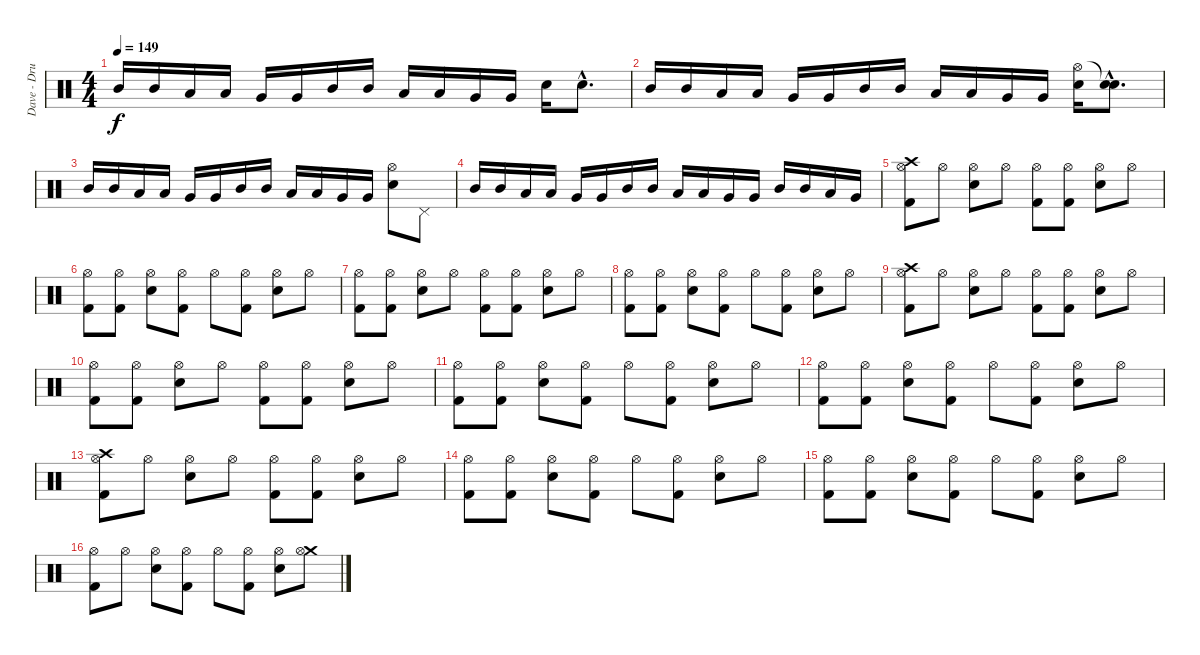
\track ("Dave - Drums" "Dave - Dru") {instrument percussion}
\staff {score}
\articulation defaults
\ts (4 4)
\tempo 149
\clef neutral
\ks c "Mid Tom (hit)".16{dy f} "Mid Tom (hit)".16 "Low Tom (hit)".16 "Low Tom (hit)".16 "Very Low Tom (hit)".16 "Very Low Tom (hit)".16 "Mid Tom (hit)".16 "Mid Tom (hit)".16 "Low Tom (hit)".16 "Low Tom (hit)".16 "Very Low Tom (hit)".16 "Very Low Tom (hit)".16 "Electric Snare (hit)".16 "Electric Snare (hit)"{hac}.8{d}
|
"Mid Tom (hit)".16 "Mid Tom (hit)".16 "Low Tom (hit)".16 "Low Tom (hit)".16 "Very Low Tom (hit)".16 "Very Low Tom (hit)".16 "Mid Tom (hit)".16 "Mid Tom (hit)".16 "Low Tom (hit)".16 "Low Tom (hit)".16 "Very Low Tom (hit)".16 "Very Low Tom (hit)".16 ("Hi-Hat (open)" "Electric Snare (hit)").16 ("Snare (hit)"{hac t} "Electric Snare (hit)"{hac}).8{d} |
"Mid Tom (hit)".16 "Mid Tom (hit)".16 "Low Tom (hit)".16 "Low Tom (hit)".16 "Very Low Tom (hit)".16 "Very Low Tom (hit)".16 "Mid Tom (hit)".16 "Mid Tom (hit)".16 "Low Tom (hit)".16 "Low Tom (hit)".16 "Very Low Tom (hit)".16 "Very Low Tom (hit)".16 ("Hi-Hat (open)" "Electric Snare (hit)").8 "Pedal Hi-Hat (hit)".8 |
"Mid Tom (hit)".16 "Mid Tom (hit)".16 "Low Tom (hit)".16 "Low Tom (hit)".16 "Very Low Tom (hit)".16 "Very Low Tom (hit)".16 "Mid Tom (hit)".16 "Mid Tom (hit)".16 "Low Tom (hit)".16 "Low Tom (hit)".16 "Very Low Tom (hit)".16 "Very Low Tom (hit)".16 "Mid Tom (hit)".16 "Mid Tom (hit)".16 "Low Tom (hit)".16 "Very Low Tom (hit)".16 |
("Crash high (hit)" "Hi-Hat (open)" "Kick (hit) 2").8 "Hi-Hat (open)".8 ("Hi-Hat (open)" "Electric Snare (hit)").8 "Hi-Hat (open)".8 ("Hi-Hat (open)" "Kick (hit) 2").8 ("Hi-Hat (open)" "Kick (hit) 2").8 ("Hi-Hat (open)" "Electric Snare (hit)").8 "Hi-Hat (open)".8 |
("Hi-Hat (open)" "Kick (hit) 2").8 ("Hi-Hat (open)" "Kick (hit) 2").8 ("Hi-Hat (open)" "Electric Snare (hit)").8 ("Hi-Hat (open)" "Kick (hit) 2").8 "Hi-Hat (open)".8 ("Hi-Hat (open)" "Kick (hit) 2").8 ("Hi-Hat (open)" "Electric Snare (hit)").8 "Hi-Hat (open)".8 |
("Hi-Hat (open)" "Kick (hit) 2").8 ("Hi-Hat (open)" "Kick (hit) 2").8 ("Hi-Hat (open)" "Electric Snare (hit)").8 "Hi-Hat (open)".8 ("Hi-Hat (open)" "Kick (hit) 2").8 ("Hi-Hat (open)" "Kick (hit) 2").8 ("Hi-Hat (open)" "Electric Snare (hit)").8 "Hi-Hat (open)".8 |
("Hi-Hat (open)" "Kick (hit) 2").8 ("Hi-Hat (open)" "Kick (hit) 2").8 ("Hi-Hat (open)" "Electric Snare (hit)").8 ("Hi-Hat (open)" "Kick (hit) 2").8 "Hi-Hat (open)".8 ("Hi-Hat (open)" "Kick (hit) 2").8 ("Hi-Hat (open)" "Electric Snare (hit)").8 "Hi-Hat (open)".8 |
("Crash high (hit)" "Hi-Hat (open)" "Kick (hit) 2").8 "Hi-Hat (open)".8 ("Hi-Hat (open)" "Electric Snare (hit)").8 "Hi-Hat (open)".8 ("Hi-Hat (open)" "Kick (hit) 2").8 ("Hi-Hat (open)" "Kick (hit) 2").8 ("Hi-Hat (open)" "Electric Snare (hit)").8 "Hi-Hat (open)".8 |
("Hi-Hat (open)" "Kick (hit) 2").8 ("Hi-Hat (open)" "Kick (hit) 2").8 ("Hi-Hat (open)" "Electric Snare (hit)").8 "Hi-Hat (open)".8 ("Hi-Hat (open)" "Kick (hit) 2").8 ("Hi-Hat (open)" "Kick (hit) 2").8 ("Hi-Hat (open)" "Electric Snare (hit)").8 "Hi-Hat (open)".8 |
("Hi-Hat (open)" "Kick (hit) 2").8 ("Hi-Hat (open)" "Kick (hit) 2").8 ("Hi-Hat (open)" "Electric Snare (hit)").8 ("Hi-Hat (open)" "Kick (hit) 2").8 "Hi-Hat (open)".8 ("Hi-Hat (open)" "Kick (hit) 2").8 ("Hi-Hat (open)" "Electric Snare (hit)").8 "Hi-Hat (open)".8 |
("Hi-Hat (open)" "Kick (hit) 2").8 ("Hi-Hat (open)" "Kick (hit) 2").8 ("Hi-Hat (open)" "Electric Snare (hit)").8 ("Hi-Hat (open)" "Kick (hit) 2").8 "Hi-Hat (open)".8 ("Hi-Hat (open)" "Kick (hit) 2").8 ("Hi-Hat (open)" "Electric Snare (hit)").8 "Hi-Hat (open)".8 |
("Crash high (hit)" "Hi-Hat (open)" "Kick (hit) 2").8 "Hi-Hat (open)".8 ("Hi-Hat (open)" "Electric Snare (hit)").8 "Hi-Hat (open)".8 ("Hi-Hat (open)" "Kick (hit) 2").8 ("Hi-Hat (open)" "Kick (hit) 2").8 ("Hi-Hat (open)" "Electric Snare (hit)").8 "Hi-Hat (open)".8 |
("Hi-Hat (open)" "Kick (hit) 2").8 ("Hi-Hat (open)" "Kick (hit) 2").8 ("Hi-Hat (open)" "Electric Snare (hit)").8 ("Hi-Hat (open)" "Kick (hit) 2").8 "Hi-Hat (open)".8 ("Hi-Hat (open)" "Kick (hit) 2").8 ("Hi-Hat (open)" "Electric Snare (hit)").8 "Hi-Hat (open)".8 |
("Hi-Hat (open)" "Kick (hit) 2").8 ("Hi-Hat (open)" "Kick (hit) 2").8 ("Hi-Hat (open)" "Electric Snare (hit)").8 ("Hi-Hat (open)" "Kick (hit) 2").8 "Hi-Hat (open)".8 ("Hi-Hat (open)" "Kick (hit) 2").8 ("Hi-Hat (open)" "Electric Snare (hit)").8 "Hi-Hat (open)".8 |
("Hi-Hat (open)" "Kick (hit) 2").8 "Hi-Hat (open)".8 ("Hi-Hat (open)" "Electric Snare (hit)").8 ("Hi-Hat (open)" "Kick (hit) 2").8 "Hi-Hat (open)".8 ("Hi-Hat (open)" "Kick (hit) 2").8 ("Hi-Hat (open)" "Electric Snare (hit)").8 ("Crash medium (hit)" "Hi-Hat (open)").8
